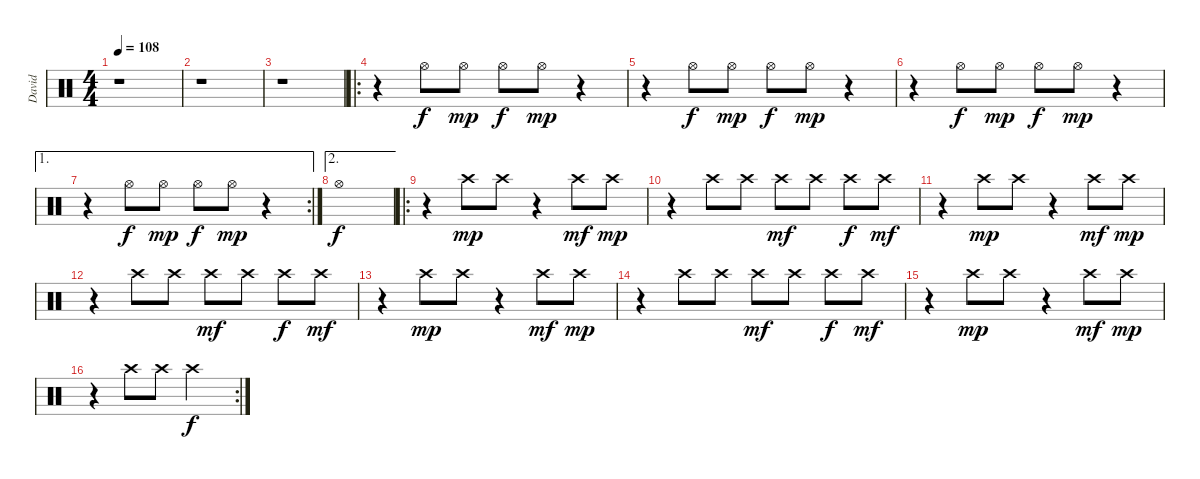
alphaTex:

\track ("David" "David") {instrument percussion}
\staff {score}
\articulation defaults
\ts (4 4)
\tempo 108
\clef neutral
\ks c
r.1{dy f} |
r.1 |
r.1 |
\ro
r.4 "Hi-Hat (open)".8 "Hi-Hat (open)".8{dy mp} "Hi-Hat (open)".8{dy f} "Hi-Hat (open)".8{dy mp} r.4 |
r.4 "Hi-Hat (open)".8{dy f} "Hi-Hat (open)".8{dy mp} "Hi-Hat (open)".8{dy f} "Hi-Hat (open)".8{dy mp} r.4 |
r.4 "Hi-Hat (open)".8{dy f} "Hi-Hat (open)".8{dy mp} "Hi-Hat (open)".8{dy f} "Hi-Hat (open)".8{dy mp} r.4 |
\ae 1
\rc 2
r.4 "Hi-Hat (open)".8{dy f} "Hi-Hat (open)".8{dy mp} "Hi-Hat (open)".8{dy f} "Hi-Hat (open)".8{dy mp} r.4 |
\ae 2 "Hi-Hat (open)".1{dy f}
|
\ro
r.4 "Crash high (hit)".8{dy mp} "Crash high (hit)".8 r.4 "Crash high (hit)".8{dy mf} "Crash high (hit)".8{dy mp} |
r.4 "Crash high (hit)".8 "Crash high (hit)".8 "Crash high (hit)".8{dy mf} "Crash high (hit)".8 "Crash high (hit)".8{dy f} "Crash high (hit)".8{dy mf} |
r.4 "Crash high (hit)".8{dy mp} "Crash high (hit)".8 r.4 "Crash high (hit)".8{dy mf} "Crash high (hit)".8{dy mp} |
r.4 "Crash high (hit)".8 "Crash high (hit)".8 "Crash high (hit)".8{dy mf} "Crash high (hit)".8 "Crash high (hit)".8{dy f} "Crash high (hit)".8{dy mf} |
r.4 "Crash high (hit)".8{dy mp} "Crash high (hit)".8 r.4 "Crash high (hit)".8{dy mf} "Crash high (hit)".8{dy mp} |
r.4 "Crash high (hit)".8 "Crash high (hit)".8 "Crash high (hit)".8{dy mf} "Crash high (hit)".8 "Crash high (hit)".8{dy f} "Crash high (hit)".8{dy mf} |
r.4 "Crash high (hit)".8{dy mp} "Crash high (hit)".8 r.4 "Crash high (hit)".8{dy mf} "Crash high (hit)".8{dy mp} |
\rc 2
r.4 "Crash high (hit)".8 "Crash high (hit)".8 "Crash high (hit)".2{dy f}
